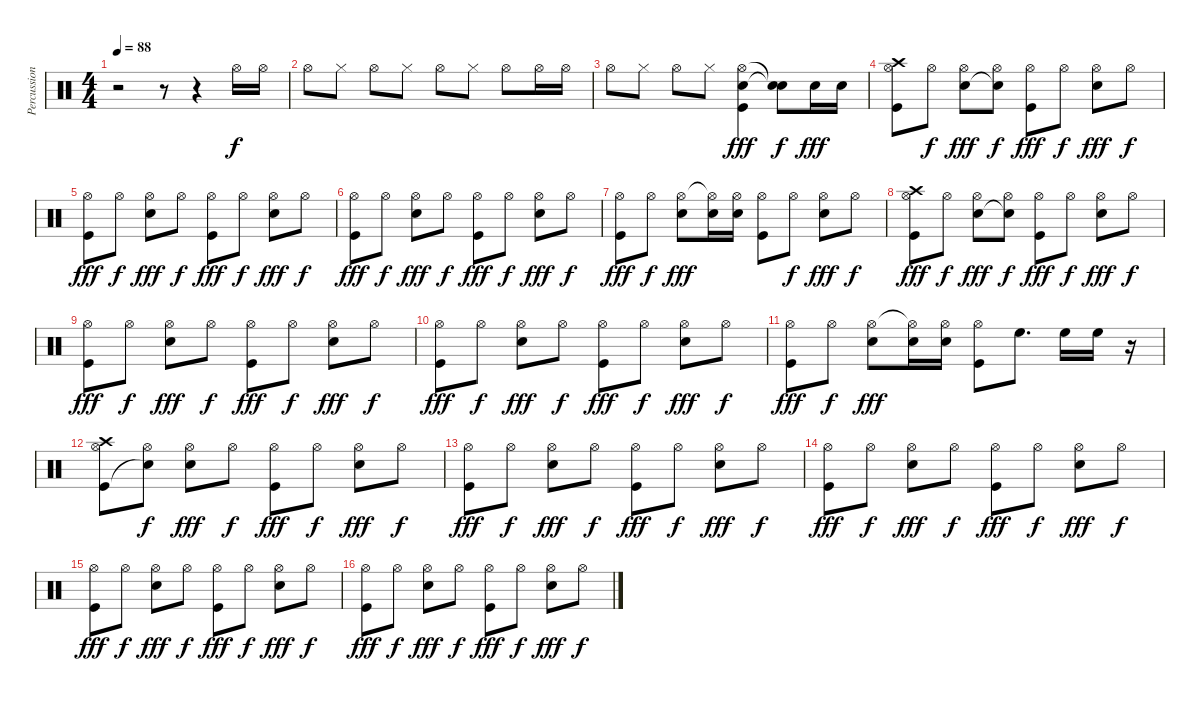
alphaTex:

\track ("Percussions" "Percussion") {instrument percussion}
\staff {score}
\articulation defaults
\ts (4 4)
\tempo 88
\clef neutral
\ks c
r.2{dy f} r.8 r.4 "Hi-Hat (open)".16 "Hi-Hat (open)".16 |
"Hi-Hat (open)".8 "Hi-Hat (closed)".8 "Hi-Hat (open)".8 "Hi-Hat (closed)".8 "Hi-Hat (open)".8 "Hi-Hat (closed)".8 "Hi-Hat (open)".8 "Hi-Hat (open)".16 "Hi-Hat (open)".16 |
"Hi-Hat (open)".8 "Hi-Hat (closed)".8 "Hi-Hat (open)".8 "Hi-Hat (closed)".8 ("Hi-Hat (open)" "Snare (hit) 2" "Kick (hit)").4{dy fff} ("Snare (hit)"{t} "Snare (hit)"{t}).8{dy f} "Snare (hit) 2".16{dy fff} "Snare (hit) 2".16 |
("Hi-Hat (open)" "Kick (hit)" "Crash high (hit)").8 "Hi-Hat (open)".8{dy f} ("Hi-Hat (open)" "Snare (hit) 2").8{dy fff} ("Hi-Hat (open)" "Snare (hit)"{t}).8{dy f} ("Hi-Hat (open)" "Kick (hit)").8{dy fff} "Hi-Hat (open)".8{dy f} ("Hi-Hat (open)" "Snare (hit) 2").8{dy fff} "Hi-Hat (open)".8{dy f} |
("Hi-Hat (open)" "Kick (hit)").8{dy fff} "Hi-Hat (open)".8{dy f} ("Hi-Hat (open)" "Snare (hit) 2").8{dy fff} "Hi-Hat (open)".8{dy f} ("Hi-Hat (open)" "Kick (hit)").8{dy fff} "Hi-Hat (open)".8{dy f} ("Hi-Hat (open)" "Snare (hit) 2").8{dy fff} "Hi-Hat (open)".8{dy f} |
("Hi-Hat (open)" "Kick (hit)").8{dy fff} "Hi-Hat (open)".8{dy f} ("Hi-Hat (open)" "Snare (hit) 2").8{dy fff} "Hi-Hat (open)".8{dy f} ("Hi-Hat (open)" "Kick (hit)").8{dy fff} "Hi-Hat (open)".8{dy f} ("Hi-Hat (open)" "Snare (hit) 2").8{dy fff} "Hi-Hat (open)".8{dy f} |
("Hi-Hat (open)" "Kick (hit)").8{dy fff} "Hi-Hat (open)".8{dy f} ("Hi-Hat (open)" "Snare (hit) 2").8{dy fff} ("Hi-Hat (open)"{t} "Snare (hit) 2").16 ("Hi-Hat (open)" "Snare (hit) 2").16 ("Hi-Hat (open)" "Kick (hit)").8 "Hi-Hat (open)".8{dy f} ("Hi-Hat (open)" "Snare (hit) 2").8{dy fff} "Hi-Hat (open)".8{dy f} |
("Hi-Hat (open)" "Kick (hit)" "Crash high (hit)").8{dy fff} "Hi-Hat (open)".8{dy f} ("Hi-Hat (open)" "Snare (hit) 2").8{dy fff} ("Hi-Hat (open)" "Snare (hit)"{t}).8{dy f} ("Hi-Hat (open)" "Kick (hit)").8{dy fff} "Hi-Hat (open)".8{dy f} ("Hi-Hat (open)" "Snare (hit) 2").8{dy fff} "Hi-Hat (open)".8{dy f} |
("Hi-Hat (open)" "Kick (hit)").8{dy fff} "Hi-Hat (open)".8{dy f} ("Hi-Hat (open)" "Snare (hit) 2").8{dy fff} "Hi-Hat (open)".8{dy f} ("Hi-Hat (open)" "Kick (hit)").8{dy fff} "Hi-Hat (open)".8{dy f} ("Hi-Hat (open)" "Snare (hit) 2").8{dy fff} "Hi-Hat (open)".8{dy f} |
("Hi-Hat (open)" "Kick (hit)").8{dy fff} "Hi-Hat (open)".8{dy f} ("Hi-Hat (open)" "Snare (hit) 2").8{dy fff} "Hi-Hat (open)".8{dy f} ("Hi-Hat (open)" "Kick (hit)").8{dy fff} "Hi-Hat (open)".8{dy f} ("Hi-Hat (open)" "Snare (hit) 2").8{dy fff} "Hi-Hat (open)".8{dy f} |
("Hi-Hat (open)" "Kick (hit)").8{dy fff} "Hi-Hat (open)".8{dy f} ("Hi-Hat (open)" "Snare (hit) 2").8{dy fff} ("Hi-Hat (open)"{t} "Snare (hit) 2").16 ("Hi-Hat (open)" "Snare (hit) 2").16 ("Hi-Hat (open)" "Kick (hit)").8 "High Floor Tom (hit)".8{d} "High Floor Tom (hit)".16 "High Floor Tom (hit)".16 r.16 |
("Hi-Hat (open)" "Kick (hit)" "Crash high (hit)").8 ("Hi-Hat (open)" "Snare (hit)"{t}).8{dy f} ("Hi-Hat (open)" "Snare (hit) 2").8{dy fff} "Hi-Hat (open)".8{dy f} ("Hi-Hat (open)" "Kick (hit)").8{dy fff} "Hi-Hat (open)".8{dy f} ("Hi-Hat (open)" "Snare (hit) 2").8{dy fff} "Hi-Hat (open)".8{dy f} |
("Hi-Hat (open)" "Kick (hit)").8{dy fff} "Hi-Hat (open)".8{dy f} ("Hi-Hat (open)" "Snare (hit) 2").8{dy fff} "Hi-Hat (open)".8{dy f} ("Hi-Hat (open)" "Kick (hit)").8{dy fff} "Hi-Hat (open)".8{dy f} ("Hi-Hat (open)" "Snare (hit) 2").8{dy fff} "Hi-Hat (open)".8{dy f} |
("Hi-Hat (open)" "Kick (hit)").8{dy fff} "Hi-Hat (open)".8{dy f} ("Hi-Hat (open)" "Snare (hit) 2").8{dy fff} "Hi-Hat (open)".8{dy f} ("Hi-Hat (open)" "Kick (hit)").8{dy fff} "Hi-Hat (open)".8{dy f} ("Hi-Hat (open)" "Snare (hit) 2").8{dy fff} "Hi-Hat (open)".8{dy f} |
("Hi-Hat (open)" "Kick (hit)").8{dy fff} "Hi-Hat (open)".8{dy f} ("Hi-Hat (open)" "Snare (hit) 2").8{dy fff} "Hi-Hat (open)".8{dy f} ("Hi-Hat (open)" "Kick (hit)").8{dy fff} "Hi-Hat (open)".8{dy f} ("Hi-Hat (open)" "Snare (hit) 2").8{dy fff} "Hi-Hat (open)".8{dy f} |
("Hi-Hat (open)" "Kick (hit)").8{dy fff} "Hi-Hat (open)".8{dy f} ("Hi-Hat (open)" "Snare (hit) 2").8{dy fff} "Hi-Hat (open)".8{dy f} ("Hi-Hat (open)" "Kick (hit)").8{dy fff} "Hi-Hat (open)".8{dy f} ("Hi-Hat (open)" "Snare (hit) 2").8{dy fff} "Hi-Hat (open)".8{dy f}
